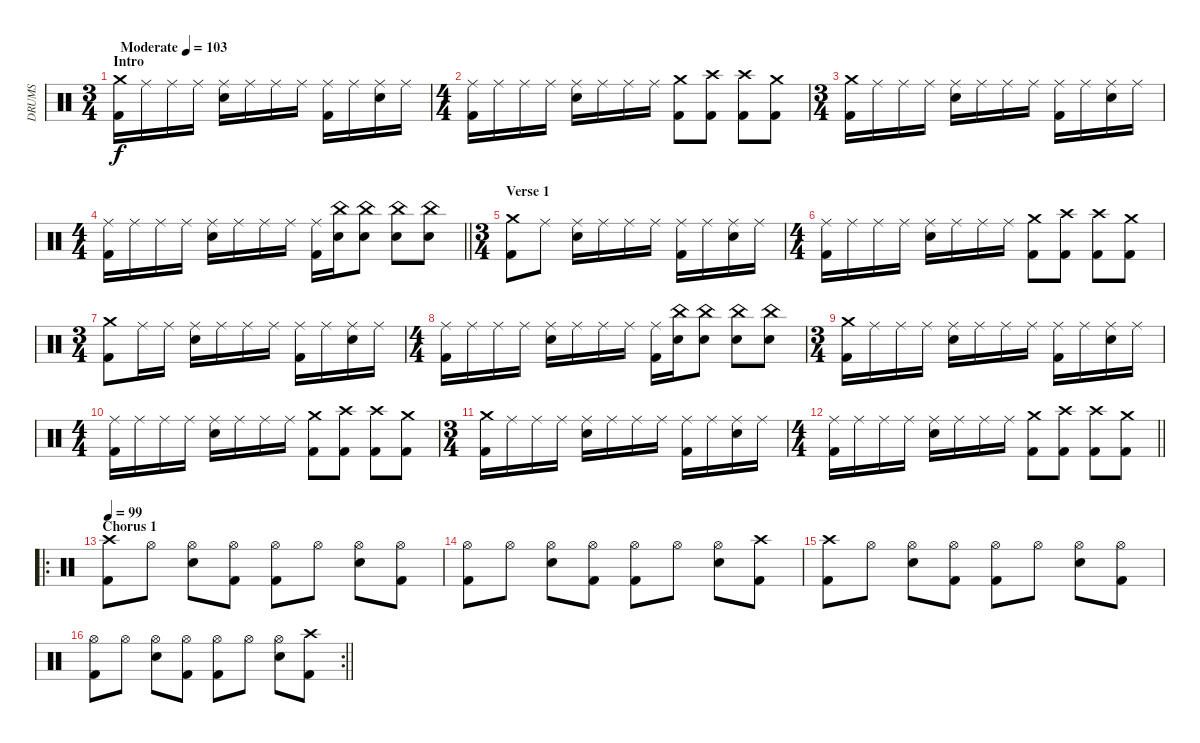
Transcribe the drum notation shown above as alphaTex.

\track ("DRUMS" "DRUMS") {instrument percussion}
\staff {score}
\articulation defaults
\ts (3 4)
\section ("" "Intro")
\tempo (103 "Moderate")
\clef neutral
\ks c
("Crash medium (hit)" "Kick (hit) 2").16{dy f} "Ride (middle)".16 "Ride (middle)".16 "Ride (middle)".16 ("Ride (middle)" "Snare (hit) 2").16 "Ride (middle)".16 "Ride (middle)".16 "Ride (middle)".16 ("Ride (middle)" "Kick (hit) 2").16 "Ride (middle)".16 ("Ride (middle)" "Snare (hit) 2").16 "Ride (middle)".16 |
\ts (4 4)
("Ride (middle)" "Kick (hit) 2").16 "Ride (middle)".16 "Ride (middle)".16 "Ride (middle)".16 ("Ride (middle)" "Snare (hit) 2").16 "Ride (middle)".16 "Ride (middle)".16 "Ride (middle)".16 ("Crash medium (hit)" "Kick (hit) 2").8 ("Crash high (hit)" "Kick (hit) 2").8 ("Crash high (hit)" "Kick (hit) 2").8 ("Crash medium (hit)" "Kick (hit) 2").8 |
\ts (3 4)
("Crash medium (hit)" "Kick (hit) 2").16 "Ride (middle)".16 "Ride (middle)".16 "Ride (middle)".16 ("Ride (middle)" "Snare (hit) 2").16 "Ride (middle)".16 "Ride (middle)".16 "Ride (middle)".16 ("Ride (middle)" "Kick (hit) 2").16 "Ride (middle)".16 ("Ride (middle)" "Snare (hit) 2").16 "Ride (middle)".16 |
\ts (4 4)
\barLineRight lightlight
("Ride (middle)" "Kick (hit) 2").16 "Ride (middle)".16 "Ride (middle)".16 "Ride (middle)".16 ("Ride (middle)" "Snare (hit) 2").16 "Ride (middle)".16 "Ride (middle)".16 "Ride (middle)".16 ("Ride (middle)" "Kick (hit) 2").16 ("China (hit)" "Snare (hit) 2").16 ("China (hit)" "Snare (hit) 2").8 ("China (hit)" "Snare (hit) 2").8 ("China (hit)" "Snare (hit) 2").8 |
\ts (3 4)
\section ("" "Verse 1")
("Crash medium (hit)" "Kick (hit) 2").8 "Ride (middle)".8 ("Ride (middle)" "Snare (hit) 2").16 "Ride (middle)".16 "Ride (middle)".16 "Ride (middle)".16 ("Ride (middle)" "Kick (hit) 2").16 "Ride (middle)".16 ("Ride (middle)" "Snare (hit) 2").16 "Ride (middle)".16 |
\ts (4 4)
("Ride (middle)" "Kick (hit) 2").16 "Ride (middle)".16 "Ride (middle)".16 "Ride (middle)".16 ("Ride (middle)" "Snare (hit) 2").16 "Ride (middle)".16 "Ride (middle)".16 "Ride (middle)".16 ("Crash medium (hit)" "Kick (hit) 2").8 ("Crash high (hit)" "Kick (hit) 2").8 ("Crash high (hit)" "Kick (hit) 2").8 ("Crash medium (hit)" "Kick (hit) 2").8 |
\ts (3 4)
("Crash medium (hit)" "Kick (hit) 2").8 "Ride (middle)".16 "Ride (middle)".16 ("Ride (middle)" "Snare (hit) 2").16 "Ride (middle)".16 "Ride (middle)".16 "Ride (middle)".16 ("Ride (middle)" "Kick (hit) 2").16 "Ride (middle)".16 ("Ride (middle)" "Snare (hit) 2").16 "Ride (middle)".16 |
\ts (4 4)
("Ride (middle)" "Kick (hit) 2").16 "Ride (middle)".16 "Ride (middle)".16 "Ride (middle)".16 ("Ride (middle)" "Snare (hit) 2").16 "Ride (middle)".16 "Ride (middle)".16 "Ride (middle)".16 ("Ride (middle)" "Kick (hit) 2").16 ("China (hit)" "Snare (hit) 2").16 ("China (hit)" "Snare (hit) 2").8 ("China (hit)" "Snare (hit) 2").8 ("China (hit)" "Snare (hit) 2").8 |
\ts (3 4)
("Crash medium (hit)" "Kick (hit) 2").16 "Ride (middle)".16 "Ride (middle)".16 "Ride (middle)".16 ("Ride (middle)" "Snare (hit) 2").16 "Ride (middle)".16 "Ride (middle)".16 "Ride (middle)".16 ("Ride (middle)" "Kick (hit) 2").16 "Ride (middle)".16 ("Ride (middle)" "Snare (hit) 2").16 "Ride (middle)".16 |
\ts (4 4)
("Ride (middle)" "Kick (hit) 2").16 "Ride (middle)".16 "Ride (middle)".16 "Ride (middle)".16 ("Ride (middle)" "Snare (hit) 2").16 "Ride (middle)".16 "Ride (middle)".16 "Ride (middle)".16 ("Crash medium (hit)" "Kick (hit) 2").8 ("Crash high (hit)" "Kick (hit) 2").8 ("Crash high (hit)" "Kick (hit) 2").8 ("Crash medium (hit)" "Kick (hit) 2").8 |
\ts (3 4)
("Crash medium (hit)" "Kick (hit) 2").16 "Ride (middle)".16 "Ride (middle)".16 "Ride (middle)".16 ("Ride (middle)" "Snare (hit) 2").16 "Ride (middle)".16 "Ride (middle)".16 "Ride (middle)".16 ("Ride (middle)" "Kick (hit) 2").16 "Ride (middle)".16 ("Ride (middle)" "Snare (hit) 2").16 "Ride (middle)".16 |
\ts (4 4)
\barLineRight lightlight
("Ride (middle)" "Kick (hit) 2").16 "Ride (middle)".16 "Ride (middle)".16 "Ride (middle)".16 ("Ride (middle)" "Snare (hit) 2").16 "Ride (middle)".16 "Ride (middle)".16 "Ride (middle)".16 ("Crash medium (hit)" "Kick (hit) 2").8 ("Crash high (hit)" "Kick (hit) 2").8 ("Crash high (hit)" "Kick (hit) 2").8 ("Crash medium (hit)" "Kick (hit) 2").8 |
\ro
\section ("" "Chorus 1")
\tempo 99
("Crash high (hit)" "Kick (hit) 2").8 "Hi-Hat (open)".8 ("Hi-Hat (open)" "Snare (hit) 2").8 ("Hi-Hat (open)" "Kick (hit) 2").8 ("Hi-Hat (open)" "Kick (hit) 2").8 "Hi-Hat (open)".8 ("Hi-Hat (open)" "Snare (hit) 2").8 ("Hi-Hat (open)" "Kick (hit) 2").8 |
("Hi-Hat (open)" "Kick (hit) 2").8 "Hi-Hat (open)".8 ("Hi-Hat (open)" "Snare (hit) 2").8 ("Hi-Hat (open)" "Kick (hit) 2").8 ("Hi-Hat (open)" "Kick (hit) 2").8 "Hi-Hat (open)".8 ("Hi-Hat (open)" "Snare (hit) 2").8 ("Crash high (hit)" "Kick (hit) 2").8 |
("Crash high (hit)" "Kick (hit) 2").8 "Hi-Hat (open)".8 ("Hi-Hat (open)" "Snare (hit) 2").8 ("Hi-Hat (open)" "Kick (hit) 2").8 ("Hi-Hat (open)" "Kick (hit) 2").8 "Hi-Hat (open)".8 ("Hi-Hat (open)" "Snare (hit) 2").8 ("Hi-Hat (open)" "Kick (hit) 2").8 |
\rc 2
\barLineRight lightlight
("Hi-Hat (open)" "Kick (hit) 2").8 "Hi-Hat (open)".8 ("Hi-Hat (open)" "Snare (hit) 2").8 ("Hi-Hat (open)" "Kick (hit) 2").8 ("Hi-Hat (open)" "Kick (hit) 2").8 "Hi-Hat (open)".8 ("Hi-Hat (open)" "Snare (hit) 2").8 ("Crash high (hit)" "Kick (hit) 2").8
